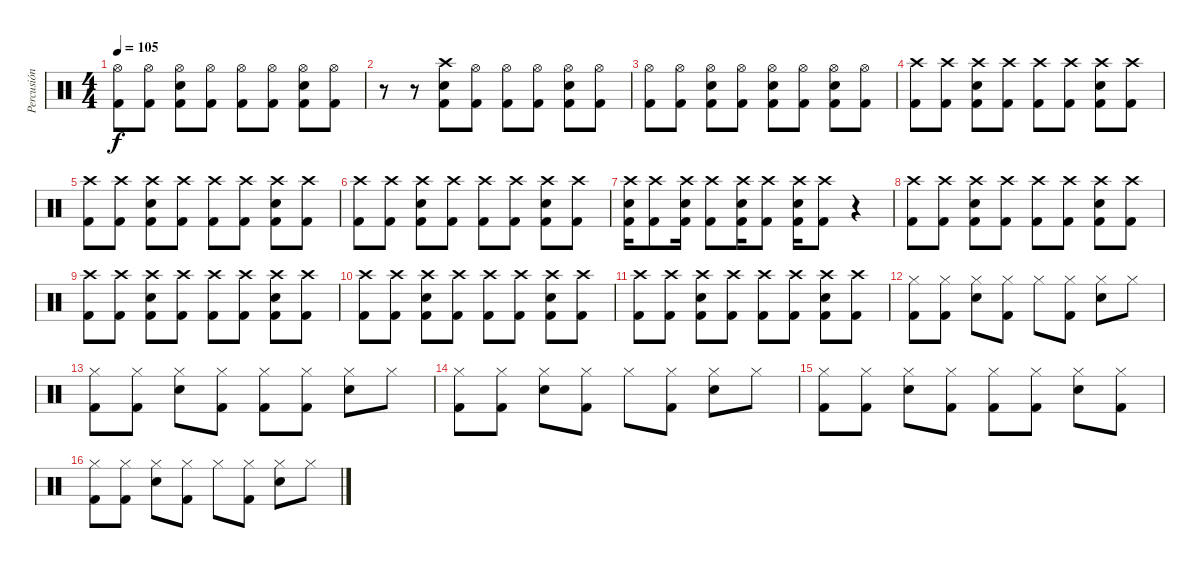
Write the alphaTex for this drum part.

\track ("Percusión" "Percusión") {instrument percussion}
\staff {score}
\articulation defaults
\ts (4 4)
\tempo 105
\clef neutral
\ks c
("Hi-Hat (open)" "Kick (hit) 2").8{dy f} ("Hi-Hat (open)" "Kick (hit) 2").8 ("Hi-Hat (open)" "Electric Snare (hit)" "Kick (hit) 2").8 ("Hi-Hat (open)" "Kick (hit) 2").8 ("Hi-Hat (open)" "Kick (hit) 2").8 ("Hi-Hat (open)" "Kick (hit) 2").8 ("Hi-Hat (open)" "Electric Snare (hit)" "Kick (hit) 2").8 ("Hi-Hat (open)" "Kick (hit) 2").8 |
r.8 r.8 ("Crash high (hit)" "Electric Snare (hit)" "Kick (hit) 2").8 ("Hi-Hat (open)" "Kick (hit) 2").8 ("Hi-Hat (open)" "Kick (hit) 2").8 ("Hi-Hat (open)" "Kick (hit) 2").8 ("Hi-Hat (open)" "Electric Snare (hit)" "Kick (hit) 2").8 ("Hi-Hat (open)" "Kick (hit) 2").8 |
("Hi-Hat (open)" "Kick (hit) 2").8 ("Hi-Hat (open)" "Kick (hit) 2").8 ("Hi-Hat (open)" "Electric Snare (hit)" "Kick (hit) 2").8 ("Hi-Hat (open)" "Kick (hit) 2").8 ("Hi-Hat (open)" "Electric Snare (hit)" "Kick (hit) 2").8 ("Hi-Hat (open)" "Kick (hit) 2").8 ("Hi-Hat (open)" "Electric Snare (hit)" "Kick (hit) 2").8 ("Hi-Hat (open)" "Kick (hit) 2").8 |
("Crash high (hit)" "Kick (hit) 2").8 ("Crash high (hit)" "Kick (hit) 2").8 ("Crash high (hit)" "Electric Snare (hit)" "Kick (hit) 2").8 ("Crash high (hit)" "Kick (hit) 2").8 ("Crash high (hit)" "Kick (hit) 2").8 ("Crash high (hit)" "Kick (hit) 2").8 ("Crash high (hit)" "Electric Snare (hit)" "Kick (hit) 2").8 ("Crash high (hit)" "Kick (hit) 2").8 |
("Crash high (hit)" "Kick (hit) 2").8 ("Crash high (hit)" "Kick (hit) 2").8 ("Crash high (hit)" "Electric Snare (hit)" "Kick (hit) 2").8 ("Crash high (hit)" "Kick (hit) 2").8 ("Crash high (hit)" "Kick (hit) 2").8 ("Crash high (hit)" "Kick (hit) 2").8 ("Crash high (hit)" "Electric Snare (hit)" "Kick (hit) 2").8 ("Crash high (hit)" "Kick (hit) 2").8 |
("Crash high (hit)" "Kick (hit) 2").8 ("Crash high (hit)" "Kick (hit) 2").8 ("Crash high (hit)" "Electric Snare (hit)" "Kick (hit) 2").8 ("Crash high (hit)" "Kick (hit) 2").8 ("Crash high (hit)" "Kick (hit) 2").8 ("Crash high (hit)" "Kick (hit) 2").8 ("Crash high (hit)" "Electric Snare (hit)" "Kick (hit) 2").8 ("Crash high (hit)" "Kick (hit) 2").8 |
("Crash high (hit)" "Electric Snare (hit)" "Kick (hit) 2").16 ("Crash high (hit)" "Kick (hit) 2").8 ("Crash high (hit)" "Electric Snare (hit)" "Kick (hit) 2").16 ("Crash high (hit)" "Kick (hit) 2").8 ("Crash high (hit)" "Electric Snare (hit)" "Kick (hit) 2").16 ("Crash high (hit)" "Kick (hit) 2").8 ("Crash high (hit)" "Electric Snare (hit)" "Kick (hit) 2").16 ("Crash high (hit)" "Kick (hit) 2").8 r.4 |
("Crash high (hit)" "Kick (hit) 2").8 ("Crash high (hit)" "Kick (hit) 2").8 ("Crash high (hit)" "Electric Snare (hit)" "Kick (hit) 2").8 ("Crash high (hit)" "Kick (hit) 2").8 ("Crash high (hit)" "Kick (hit) 2").8 ("Crash high (hit)" "Kick (hit) 2").8 ("Crash high (hit)" "Electric Snare (hit)" "Kick (hit) 2").8 ("Crash high (hit)" "Kick (hit) 2").8 |
("Crash high (hit)" "Kick (hit) 2").8 ("Crash high (hit)" "Kick (hit) 2").8 ("Crash high (hit)" "Electric Snare (hit)" "Kick (hit) 2").8 ("Crash high (hit)" "Kick (hit) 2").8 ("Crash high (hit)" "Kick (hit) 2").8 ("Crash high (hit)" "Kick (hit) 2").8 ("Crash high (hit)" "Electric Snare (hit)" "Kick (hit) 2").8 ("Crash high (hit)" "Kick (hit) 2").8 |
("Crash high (hit)" "Kick (hit) 2").8 ("Crash high (hit)" "Kick (hit) 2").8 ("Crash high (hit)" "Electric Snare (hit)" "Kick (hit) 2").8 ("Crash high (hit)" "Kick (hit) 2").8 ("Crash high (hit)" "Kick (hit) 2").8 ("Crash high (hit)" "Kick (hit) 2").8 ("Crash high (hit)" "Electric Snare (hit)" "Kick (hit) 2").8 ("Crash high (hit)" "Kick (hit) 2").8 |
("Crash high (hit)" "Kick (hit) 2").8 ("Crash high (hit)" "Kick (hit) 2").8 ("Crash high (hit)" "Electric Snare (hit)" "Kick (hit) 2").8 ("Crash high (hit)" "Kick (hit) 2").8 ("Crash high (hit)" "Kick (hit) 2").8 ("Crash high (hit)" "Kick (hit) 2").8 ("Crash high (hit)" "Electric Snare (hit)" "Kick (hit) 2").8 ("Crash high (hit)" "Kick (hit) 2").8 |
("Hi-Hat (closed)" "Kick (hit) 2").8 ("Hi-Hat (closed)" "Kick (hit) 2").8 ("Hi-Hat (closed)" "Electric Snare (hit)").8 ("Hi-Hat (closed)" "Kick (hit) 2").8 "Hi-Hat (closed)".8 ("Hi-Hat (closed)" "Kick (hit) 2").8 ("Hi-Hat (closed)" "Electric Snare (hit)").8 "Hi-Hat (closed)".8 |
("Hi-Hat (closed)" "Kick (hit) 2").8 ("Hi-Hat (closed)" "Kick (hit) 2").8 ("Hi-Hat (closed)" "Electric Snare (hit)").8 ("Hi-Hat (closed)" "Kick (hit) 2").8 ("Hi-Hat (closed)" "Kick (hit) 2").8 ("Hi-Hat (closed)" "Kick (hit) 2").8 ("Hi-Hat (closed)" "Electric Snare (hit)").8 "Hi-Hat (closed)".8 |
("Hi-Hat (closed)" "Kick (hit) 2").8 ("Hi-Hat (closed)" "Kick (hit) 2").8 ("Hi-Hat (closed)" "Electric Snare (hit)").8 ("Hi-Hat (closed)" "Kick (hit) 2").8 "Hi-Hat (closed)".8 ("Hi-Hat (closed)" "Kick (hit) 2").8 ("Hi-Hat (closed)" "Electric Snare (hit)").8 "Hi-Hat (closed)".8 |
("Hi-Hat (closed)" "Kick (hit) 2").8 ("Hi-Hat (closed)" "Kick (hit) 2").8 ("Hi-Hat (closed)" "Electric Snare (hit)").8 ("Hi-Hat (closed)" "Kick (hit) 2").8 ("Hi-Hat (closed)" "Kick (hit) 2").8 ("Hi-Hat (closed)" "Kick (hit) 2").8 ("Hi-Hat (closed)" "Electric Snare (hit)").8 ("Hi-Hat (closed)" "Kick (hit) 2").8 |
("Hi-Hat (closed)" "Kick (hit) 2").8 ("Hi-Hat (closed)" "Kick (hit) 2").8 ("Hi-Hat (closed)" "Electric Snare (hit)").8 ("Hi-Hat (closed)" "Kick (hit) 2").8 "Hi-Hat (closed)".8 ("Hi-Hat (closed)" "Kick (hit) 2").8 ("Hi-Hat (closed)" "Electric Snare (hit)").8 "Hi-Hat (closed)".8
